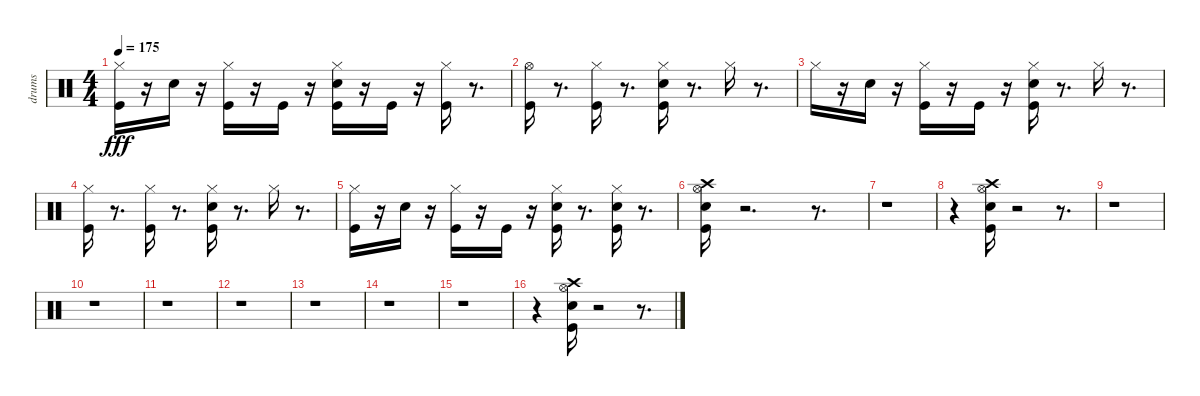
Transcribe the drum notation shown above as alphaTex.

\track ("drums" "drums") {instrument percussion}
\staff {score}
\articulation defaults
\ts (4 4)
\tempo 175
\clef neutral
\ks c
("Hi-Hat (closed)" "Kick (hit)").16{dy fff} r.16 "Snare (hit) 2".16 r.16 ("Hi-Hat (closed)" "Kick (hit)").16 r.16 "Kick (hit)".16 r.16 ("Hi-Hat (closed)" "Snare (hit) 2" "Kick (hit)").16 r.16 "Kick (hit)".16 r.16 ("Hi-Hat (closed)" "Kick (hit)").16 r.8{d} |
("Kick (hit)" "Hi-Hat (open)").16 r.8{d} ("Kick (hit)" "Hi-Hat (closed)").16 r.8{d} ("Snare (hit) 2" "Kick (hit)" "Hi-Hat (closed)").16 r.8{d} "Hi-Hat (closed)".16 r.8{d} |
"Hi-Hat (closed)".16 r.16 "Snare (hit) 2".16 r.16 ("Hi-Hat (closed)" "Kick (hit)").16 r.16 "Kick (hit)".16 r.16 ("Hi-Hat (closed)" "Snare (hit) 2" "Kick (hit)").16 r.8{d} "Hi-Hat (closed)".16 r.8{d} |
("Kick (hit)" "Hi-Hat (closed)").16 r.8{d} ("Kick (hit)" "Hi-Hat (closed)").16 r.8{d} ("Snare (hit) 2" "Kick (hit)" "Hi-Hat (closed)").16 r.8{d} "Hi-Hat (closed)".16 r.8{d} |
("Hi-Hat (closed)" "Kick (hit)").16 r.16 "Snare (hit) 2".16 r.16 ("Hi-Hat (closed)" "Kick (hit)").16 r.16 "Kick (hit)".16 r.16 ("Hi-Hat (closed)" "Snare (hit) 2" "Kick (hit)").16 r.8{d} ("Hi-Hat (closed)" "Kick (hit)" "Snare (hit) 2").16 r.8{d} |
("Kick (hit)" "Hi-Hat (open)" "Crash high (hit)" "Snare (hit) 2").16 r.2{d} r.8{d} |
r.1 |
r.4 ("Crash high (hit)" "Snare (hit) 2" "Kick (hit)" "Hi-Hat (open)").16 r.2 r.8{d} |
r.1 |
r.1 |
r.1 |
r.1 |
r.1 |
r.1 |
r.1 |
r.4 ("Hi-Hat (open)" "Kick (hit)" "Snare (hit) 2" "Crash high (hit)").16 r.2 r.8{d}
